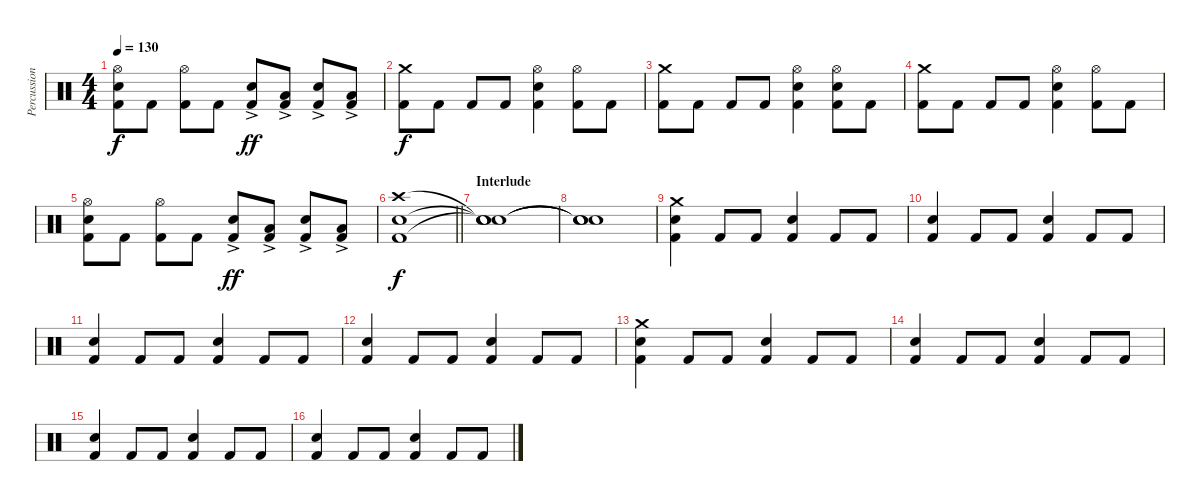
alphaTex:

\track ("Percussion" "Percussion") {instrument percussion}
\staff {score}
\articulation defaults
\ts (4 4)
\tempo 130
\clef neutral
\ks c
("Hi-Hat (open)" "Snare (hit) 2" "Kick (hit) 2").8{dy f} "Kick (hit) 2".8 ("Hi-Hat (open)" "Kick (hit) 2").8 "Kick (hit) 2".8 ("Snare (hit) 2"{ac} "Kick (hit) 2").8{dy ff} ("Low Floor Tom (hit)"{ac} "Kick (hit) 2").8 ("Snare (hit) 2"{ac} "Kick (hit) 2").8 ("Low Floor Tom (hit)"{ac} "Kick (hit) 2").8 |
("Crash medium (hit)" "Kick (hit) 2").8{dy f} "Kick (hit) 2".8 "Kick (hit) 2".8 "Kick (hit) 2".8 ("Hi-Hat (open)" "Snare (hit) 2" "Kick (hit) 2").4 ("Hi-Hat (open)" "Kick (hit) 2").8 "Kick (hit) 2".8 |
("Crash medium (hit)" "Kick (hit) 2").8 "Kick (hit) 2".8 "Kick (hit) 2".8 "Kick (hit) 2".8 ("Hi-Hat (open)" "Snare (hit) 2" "Kick (hit) 2").4 ("Hi-Hat (open)" "Snare (hit) 2" "Kick (hit) 2").8 "Kick (hit) 2".8 |
("Crash medium (hit)" "Kick (hit) 2").8 "Kick (hit) 2".8 "Kick (hit) 2".8 "Kick (hit) 2".8 ("Hi-Hat (open)" "Snare (hit) 2" "Kick (hit) 2").4 ("Hi-Hat (open)" "Kick (hit) 2").8 "Kick (hit) 2".8 |
("Hi-Hat (open)" "Snare (hit) 2" "Kick (hit) 2").8 "Kick (hit) 2".8 ("Hi-Hat (open)" "Kick (hit) 2").8 "Kick (hit) 2".8 ("Snare (hit) 2"{ac} "Kick (hit) 2").8{dy ff} ("Low Floor Tom (hit)"{ac} "Kick (hit) 2").8 ("Snare (hit) 2"{ac} "Kick (hit) 2").8 ("Low Floor Tom (hit)"{ac} "Kick (hit) 2").8 |
\barLineRight lightlight
("Crash high (hit)" "Snare (hit) 2" "Kick (hit) 2").1{dy f} |
\section ("" "Interlude")
("Snare (hit)"{t} "Snare (hit)"{t} "Snare (hit)"{t}).1 |
("Snare (hit)"{t} "Snare (hit)"{t} "Snare (hit)"{t}).1 |
("Crash medium (hit)" "Snare (hit) 2" "Kick (hit) 2").4 "Kick (hit) 2".8 "Kick (hit) 2".8 ("Snare (hit) 2" "Kick (hit) 2").4 "Kick (hit) 2".8 "Kick (hit) 2".8 |
("Snare (hit) 2" "Kick (hit) 2").4 "Kick (hit) 2".8 "Kick (hit) 2".8 ("Snare (hit) 2" "Kick (hit) 2").4 "Kick (hit) 2".8 "Kick (hit) 2".8 |
("Snare (hit) 2" "Kick (hit) 2").4 "Kick (hit) 2".8 "Kick (hit) 2".8 ("Snare (hit) 2" "Kick (hit) 2").4 "Kick (hit) 2".8 "Kick (hit) 2".8 |
("Snare (hit) 2" "Kick (hit) 2").4 "Kick (hit) 2".8 "Kick (hit) 2".8 ("Snare (hit) 2" "Kick (hit) 2").4 "Kick (hit) 2".8 "Kick (hit) 2".8 |
("Crash medium (hit)" "Snare (hit) 2" "Kick (hit) 2").4 "Kick (hit) 2".8 "Kick (hit) 2".8 ("Snare (hit) 2" "Kick (hit) 2").4 "Kick (hit) 2".8 "Kick (hit) 2".8 |
("Snare (hit) 2" "Kick (hit) 2").4 "Kick (hit) 2".8 "Kick (hit) 2".8 ("Snare (hit) 2" "Kick (hit) 2").4 "Kick (hit) 2".8 "Kick (hit) 2".8 |
("Snare (hit) 2" "Kick (hit) 2").4 "Kick (hit) 2".8 "Kick (hit) 2".8 ("Snare (hit) 2" "Kick (hit) 2").4 "Kick (hit) 2".8 "Kick (hit) 2".8 |
("Snare (hit) 2" "Kick (hit) 2").4 "Kick (hit) 2".8 "Kick (hit) 2".8 ("Snare (hit) 2" "Kick (hit) 2").4 "Kick (hit) 2".8 "Kick (hit) 2".8
